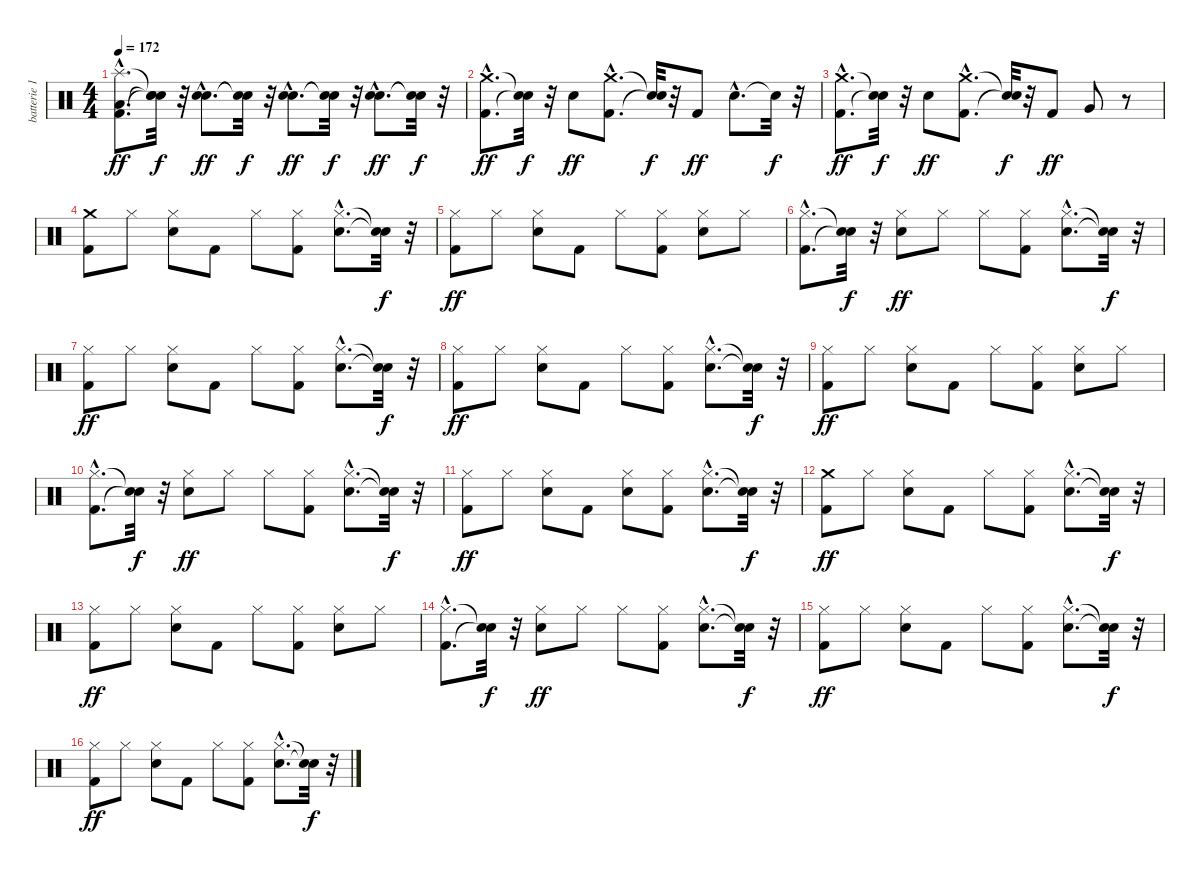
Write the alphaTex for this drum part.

\track ("batterie 1" "batterie 1") {instrument percussion}
\staff {score}
\articulation defaults
\ts (4 4)
\tempo 172
\clef neutral
\ks c
("Kick (hit) 2"{hac} "Low Floor Tom (hit)"{hac} "Splash (hit)"{hac}).8{d dy ff} ("Snare (hit)"{t} "Snare (hit)"{t} "Snare (hit)"{t}).32{dy f} r.32 ("Snare (hit) 2"{hac} "Electric Snare (hit)"{hac}).8{d dy ff} ("Snare (hit)"{t} "Snare (hit)"{t}).32{dy f} r.32 ("Snare (hit) 2"{hac} "Electric Snare (hit)"{hac}).8{d dy ff} ("Snare (hit)"{t} "Snare (hit)"{t}).32{dy f} r.32 ("Snare (hit) 2"{hac} "Electric Snare (hit)"{hac}).8{d dy ff} ("Snare (hit)"{t} "Snare (hit)"{t}).32{dy f} r.32 |
("Kick (hit) 2"{hac} "Crash medium (hit)"{hac}).8{d dy ff} ("Snare (hit)"{t} "Snare (hit)"{t}).32{dy f} r.32 "Electric Snare (hit)".8{dy ff} ("Kick (hit) 2"{hac} "Crash medium (hit)"{hac}).8{d} ("Snare (hit)"{t} "Snare (hit)"{t}).32{dy f} r.32 "Kick (hit) 2".8{dy ff} "Electric Snare (hit)"{hac}.8{d} "Snare (hit)"{t}.32{dy f} r.32 |
("Kick (hit) 2"{hac} "Crash medium (hit)"{hac}).8{d dy ff} ("Snare (hit)"{t} "Snare (hit)"{t}).32{dy f} r.32 "Electric Snare (hit)".8{dy ff} ("Kick (hit) 2"{hac} "Crash medium (hit)"{hac}).8{d} ("Snare (hit)"{t} "Snare (hit)"{t}).32{dy f} r.32 "Kick (hit) 2".8{dy ff} "Very Low Tom (hit)".8 r.8 |
("Kick (hit) 2" "Crash medium (hit)").8 "Hi-Hat (closed)".8 ("Electric Snare (hit)" "Hi-Hat (closed)").8 "Kick (hit) 2".8 "Hi-Hat (closed)".8 ("Kick (hit) 2" "Hi-Hat (closed)").8 ("Electric Snare (hit)"{hac} "Hi-Hat (closed)"{hac}).8{d} ("Snare (hit)"{t} "Snare (hit)"{t}).32{dy f} r.32 |
("Kick (hit) 2" "Hi-Hat (closed)").8{dy ff} "Hi-Hat (closed)".8 ("Electric Snare (hit)" "Hi-Hat (closed)").8 "Kick (hit) 2".8 "Hi-Hat (closed)".8 ("Kick (hit) 2" "Hi-Hat (closed)").8 ("Electric Snare (hit)" "Hi-Hat (closed)").8 "Hi-Hat (closed)".8 |
("Kick (hit) 2"{hac} "Hi-Hat (closed)"{hac}).8{d} ("Snare (hit)"{t} "Snare (hit)"{t}).32{dy f} r.32 ("Electric Snare (hit)" "Hi-Hat (closed)").8{dy ff} "Hi-Hat (closed)".8 "Hi-Hat (closed)".8 ("Kick (hit) 2" "Hi-Hat (closed)").8 ("Electric Snare (hit)"{hac} "Hi-Hat (closed)"{hac}).8{d} ("Snare (hit)"{t} "Snare (hit)"{t}).32{dy f} r.32 |
("Kick (hit) 2" "Hi-Hat (closed)").8{dy ff} "Hi-Hat (closed)".8 ("Electric Snare (hit)" "Hi-Hat (closed)").8 "Kick (hit) 2".8 "Hi-Hat (closed)".8 ("Kick (hit) 2" "Hi-Hat (closed)").8 ("Electric Snare (hit)"{hac} "Hi-Hat (closed)"{hac}).8{d} ("Snare (hit)"{t} "Snare (hit)"{t}).32{dy f} r.32 |
("Kick (hit) 2" "Hi-Hat (closed)").8{dy ff} "Hi-Hat (closed)".8 ("Electric Snare (hit)" "Hi-Hat (closed)").8 "Kick (hit) 2".8 "Hi-Hat (closed)".8 ("Kick (hit) 2" "Hi-Hat (closed)").8 ("Electric Snare (hit)"{hac} "Hi-Hat (closed)"{hac}).8{d} ("Snare (hit)"{t} "Snare (hit)"{t}).32{dy f} r.32 |
("Kick (hit) 2" "Hi-Hat (closed)").8{dy ff} "Hi-Hat (closed)".8 ("Electric Snare (hit)" "Hi-Hat (closed)").8 "Kick (hit) 2".8 "Hi-Hat (closed)".8 ("Kick (hit) 2" "Hi-Hat (closed)").8 ("Electric Snare (hit)" "Hi-Hat (closed)").8 "Hi-Hat (closed)".8 |
("Kick (hit) 2"{hac} "Hi-Hat (closed)"{hac}).8{d} ("Snare (hit)"{t} "Snare (hit)"{t}).32{dy f} r.32 ("Electric Snare (hit)" "Hi-Hat (closed)").8{dy ff} "Hi-Hat (closed)".8 "Hi-Hat (closed)".8 ("Kick (hit) 2" "Hi-Hat (closed)").8 ("Electric Snare (hit)"{hac} "Hi-Hat (closed)"{hac}).8{d} ("Snare (hit)"{t} "Snare (hit)"{t}).32{dy f} r.32 |
("Kick (hit) 2" "Hi-Hat (closed)").8{dy ff} "Hi-Hat (closed)".8 ("Electric Snare (hit)" "Hi-Hat (closed)").8 "Kick (hit) 2".8 ("Electric Snare (hit)" "Hi-Hat (closed)").8 ("Kick (hit) 2" "Hi-Hat (closed)").8 ("Electric Snare (hit)"{hac} "Hi-Hat (closed)"{hac}).8{d} ("Snare (hit)"{t} "Snare (hit)"{t}).32{dy f} r.32 |
("Kick (hit) 2" "Crash medium (hit)").8{dy ff} "Hi-Hat (closed)".8 ("Electric Snare (hit)" "Hi-Hat (closed)").8 "Kick (hit) 2".8 "Hi-Hat (closed)".8 ("Kick (hit) 2" "Hi-Hat (closed)").8 ("Electric Snare (hit)"{hac} "Hi-Hat (closed)"{hac}).8{d} ("Snare (hit)"{t} "Snare (hit)"{t}).32{dy f} r.32 |
("Kick (hit) 2" "Hi-Hat (closed)").8{dy ff} "Hi-Hat (closed)".8 ("Electric Snare (hit)" "Hi-Hat (closed)").8 "Kick (hit) 2".8 "Hi-Hat (closed)".8 ("Kick (hit) 2" "Hi-Hat (closed)").8 ("Electric Snare (hit)" "Hi-Hat (closed)").8 "Hi-Hat (closed)".8 |
("Kick (hit) 2"{hac} "Hi-Hat (closed)"{hac}).8{d} ("Snare (hit)"{t} "Snare (hit)"{t}).32{dy f} r.32 ("Electric Snare (hit)" "Hi-Hat (closed)").8{dy ff} "Hi-Hat (closed)".8 "Hi-Hat (closed)".8 ("Kick (hit) 2" "Hi-Hat (closed)").8 ("Electric Snare (hit)"{hac} "Hi-Hat (closed)"{hac}).8{d} ("Snare (hit)"{t} "Snare (hit)"{t}).32{dy f} r.32 |
("Kick (hit) 2" "Hi-Hat (closed)").8{dy ff} "Hi-Hat (closed)".8 ("Electric Snare (hit)" "Hi-Hat (closed)").8 "Kick (hit) 2".8 "Hi-Hat (closed)".8 ("Kick (hit) 2" "Hi-Hat (closed)").8 ("Electric Snare (hit)"{hac} "Hi-Hat (closed)"{hac}).8{d} ("Snare (hit)"{t} "Snare (hit)"{t}).32{dy f} r.32 |
("Kick (hit) 2" "Hi-Hat (closed)").8{dy ff} "Hi-Hat (closed)".8 ("Electric Snare (hit)" "Hi-Hat (closed)").8 "Kick (hit) 2".8 "Hi-Hat (closed)".8 ("Kick (hit) 2" "Hi-Hat (closed)").8 ("Electric Snare (hit)"{hac} "Hi-Hat (closed)"{hac}).8{d} ("Snare (hit)"{t} "Snare (hit)"{t}).32{dy f} r.32
